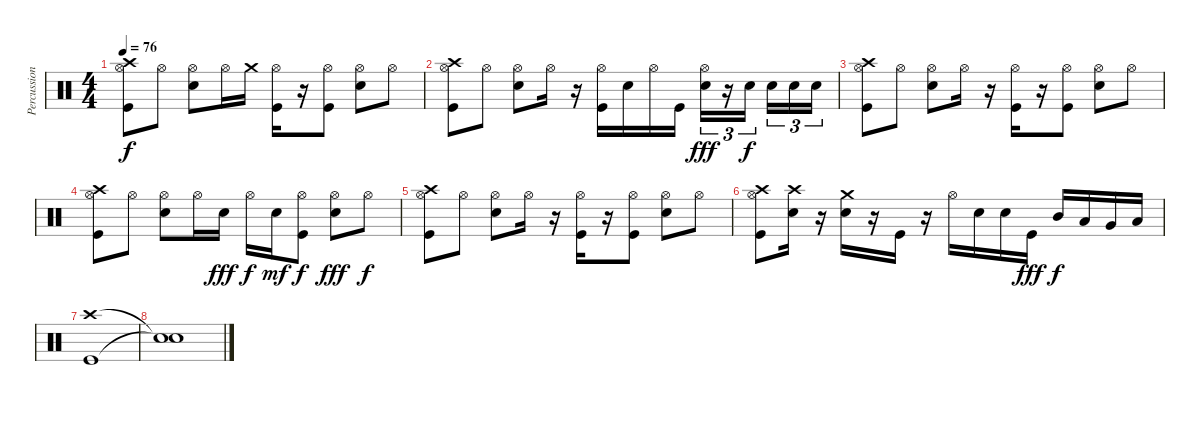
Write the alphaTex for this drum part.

\track ("Percussions" "Percussion") {instrument percussion}
\staff {score}
\articulation defaults
\ts (4 4)
\tempo 76
\clef neutral
\ks c
("Crash high (hit)" "Hi-Hat (open)" "Kick (hit)").8{dy f} "Hi-Hat (open)".8 ("Hi-Hat (open)" "Snare (hit) 2").8 "Hi-Hat (open)".16 "Crash medium (hit)".16 ("Hi-Hat (open)" "Kick (hit)").16 r.16 ("Hi-Hat (open)" "Kick (hit)").8 ("Hi-Hat (open)" "Snare (hit) 2").8 "Hi-Hat (open)".8 |
("Crash high (hit)" "Hi-Hat (open)" "Kick (hit)").8 "Hi-Hat (open)".8 ("Hi-Hat (open)" "Snare (hit) 2").8 "Hi-Hat (open)".16 r.16 ("Hi-Hat (open)" "Kick (hit)").16 "Snare (hit) 2".16 "Hi-Hat (open)".16 "Kick (hit)".16 ("Hi-Hat (open)" "Snare (hit) 2").16{tu (3 2) dy fff} r.16{tu (3 2)} "Snare (hit) 2".16{tu (3 2) dy f} "Snare (hit) 2".16{tu (3 2)} "Snare (hit) 2".16{tu (3 2)} "Snare (hit) 2".16{tu (3 2)} |
("Crash high (hit)" "Hi-Hat (open)" "Kick (hit)").8 "Hi-Hat (open)".8 ("Hi-Hat (open)" "Snare (hit) 2").8 "Hi-Hat (open)".16 r.16 ("Hi-Hat (open)" "Kick (hit)").16 r.16 ("Hi-Hat (open)" "Kick (hit)").8 ("Hi-Hat (open)" "Snare (hit) 2").8 "Hi-Hat (open)".8 |
("Crash high (hit)" "Hi-Hat (open)" "Kick (hit)").8 "Hi-Hat (open)".8 ("Hi-Hat (open)" "Snare (hit) 2").8 "Hi-Hat (open)".16 "Snare (hit) 2".16{dy fff} "Hi-Hat (open)".16{dy f} "Snare (hit) 2".16{dy mf} ("Hi-Hat (open)" "Kick (hit)").8{dy f} ("Hi-Hat (open)" "Snare (hit) 2").8{dy fff} "Hi-Hat (open)".8{dy f} |
("Crash high (hit)" "Hi-Hat (open)" "Kick (hit)").8 "Hi-Hat (open)".8 ("Hi-Hat (open)" "Snare (hit) 2").8 "Hi-Hat (open)".16 r.16 ("Hi-Hat (open)" "Kick (hit)").16 r.16 ("Hi-Hat (open)" "Kick (hit)").8 ("Hi-Hat (open)" "Snare (hit) 2").8 "Hi-Hat (open)".8 |
("Crash high (hit)" "Hi-Hat (open)" "Kick (hit)").8 ("Crash high (hit)" "Snare (hit) 2").16 r.16 ("Crash medium (hit)" "Snare (hit) 2").16 r.16 "Kick (hit)".16 r.16 "Hi-Hat (open)".16 "Snare (hit) 2".16 "Snare (hit) 2".16 "Kick (hit)".16{dy fff} "Mid Tom (hit)".16{dy f} "Low Tom (hit)".16 "Very Low Tom (hit)".16 "Low Floor Tom (hit)".16 |
("Crash high (hit)" "Kick (hit)").1 |
("Snare (hit)"{t} "Snare (hit)"{t}).1
